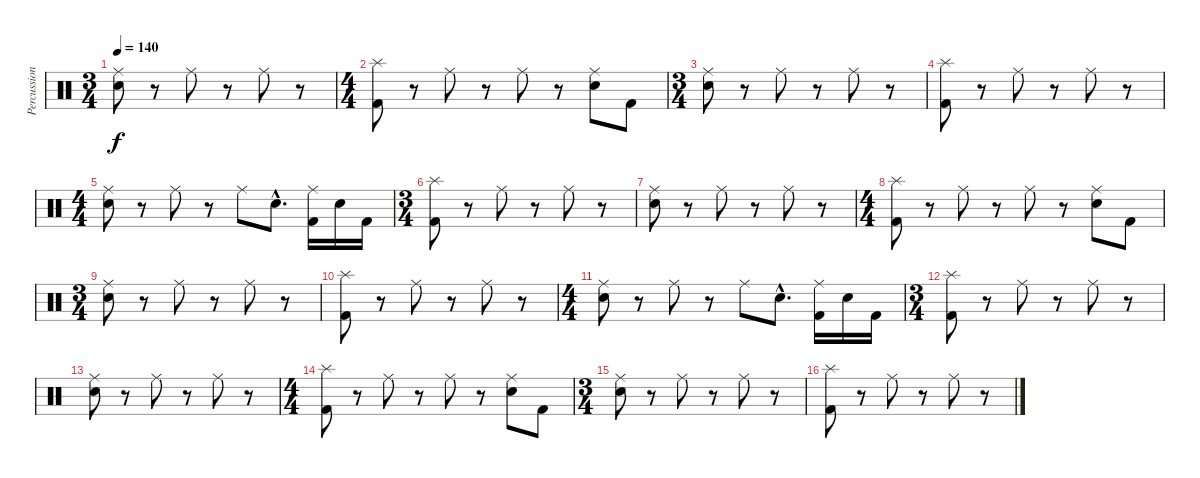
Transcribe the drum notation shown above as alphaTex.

\track ("Percussion" "Percussion") {instrument percussion}
\staff {score}
\articulation defaults
\ts (3 4)
\tempo 140
\clef neutral
\ks c
("Ride (middle)" "Electric Snare (hit)").8{dy f} r.8 "Ride (middle)".8 r.8 "Ride (middle)".8 r.8 |
\ts (4 4)
("Splash (hit)" "Kick (hit) 2").8 r.8 "Ride (middle)".8 r.8 "Ride (middle)".8 r.8 ("Ride (middle)" "Electric Snare (hit)").8 "Kick (hit) 2".8 |
\ts (3 4)
("Ride (middle)" "Electric Snare (hit)").8 r.8 "Ride (middle)".8 r.8 "Ride (middle)".8 r.8 |
("Splash (hit)" "Kick (hit) 2").8 r.8 "Ride (middle)".8 r.8 "Ride (middle)".8 r.8 |
\ts (4 4)
("Ride (middle)" "Electric Snare (hit)").8 r.8 "Ride (middle)".8 r.8 "Ride (middle)".8 "Electric Snare (hit)"{hac}.8{d} ("Ride (middle)" "Kick (hit) 2").16 "Electric Snare (hit)".16 "Kick (hit) 2".16 |
\ts (3 4)
("Splash (hit)" "Kick (hit) 2").8 r.8 "Ride (middle)".8 r.8 "Ride (middle)".8 r.8 |
("Ride (middle)" "Electric Snare (hit)").8 r.8 "Ride (middle)".8 r.8 "Ride (middle)".8 r.8 |
\ts (4 4)
("Splash (hit)" "Kick (hit) 2").8 r.8 "Ride (middle)".8 r.8 "Ride (middle)".8 r.8 ("Ride (middle)" "Electric Snare (hit)").8 "Kick (hit) 2".8 |
\ts (3 4)
("Ride (middle)" "Electric Snare (hit)").8 r.8 "Ride (middle)".8 r.8 "Ride (middle)".8 r.8 |
("Splash (hit)" "Kick (hit) 2").8 r.8 "Ride (middle)".8 r.8 "Ride (middle)".8 r.8 |
\ts (4 4)
("Ride (middle)" "Electric Snare (hit)").8 r.8 "Ride (middle)".8 r.8 "Ride (middle)".8 "Electric Snare (hit)"{hac}.8{d} ("Ride (middle)" "Kick (hit) 2").16 "Electric Snare (hit)".16 "Kick (hit) 2".16 |
\ts (3 4)
("Splash (hit)" "Kick (hit) 2").8 r.8 "Ride (middle)".8 r.8 "Ride (middle)".8 r.8 |
("Ride (middle)" "Electric Snare (hit)").8 r.8 "Ride (middle)".8 r.8 "Ride (middle)".8 r.8 |
\ts (4 4)
("Splash (hit)" "Kick (hit) 2").8 r.8 "Ride (middle)".8 r.8 "Ride (middle)".8 r.8 ("Ride (middle)" "Electric Snare (hit)").8 "Kick (hit) 2".8 |
\ts (3 4)
("Ride (middle)" "Electric Snare (hit)").8 r.8 "Ride (middle)".8 r.8 "Ride (middle)".8 r.8 |
("Splash (hit)" "Kick (hit) 2").8 r.8 "Ride (middle)".8 r.8 "Ride (middle)".8 r.8
